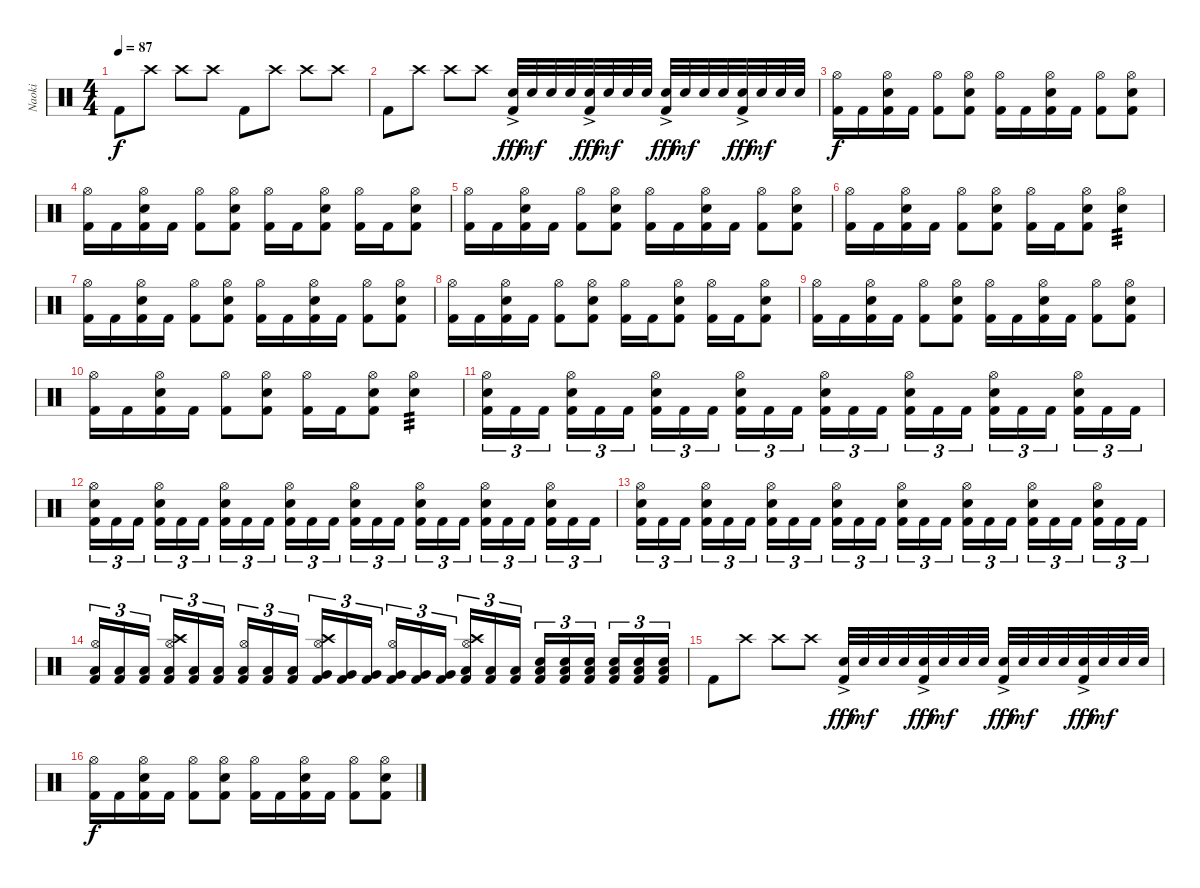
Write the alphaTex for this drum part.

\track ("Naoki" "Naoki") {instrument percussion}
\staff {score}
\articulation defaults
\ts (4 4)
\tempo 87
\clef neutral
\ks c "Kick (hit) 2".8{dy f} "Crash high (hit)".8 "Crash high (hit)".8 "Crash high (hit)".8 "Kick (hit) 2".8 "Crash high (hit)".8 "Crash high (hit)".8 "Crash high (hit)".8
|
"Kick (hit) 2".8 "Crash high (hit)".8 "Crash high (hit)".8 "Crash high (hit)".8 ("Electric Snare (hit)"{ac} "Kick (hit) 2").32{dy fff} "Electric Snare (hit)".32{dy mf} "Electric Snare (hit)".32 "Electric Snare (hit)".32 ("Electric Snare (hit)"{ac} "Kick (hit) 2").32{dy fff} "Electric Snare (hit)".32{dy mf} "Electric Snare (hit)".32 "Electric Snare (hit)".32 ("Electric Snare (hit)"{ac} "Kick (hit) 2").32{dy fff} "Electric Snare (hit)".32{dy mf} "Electric Snare (hit)".32 "Electric Snare (hit)".32 ("Electric Snare (hit)"{ac} "Kick (hit) 2").32{dy fff} "Electric Snare (hit)".32{dy mf} "Electric Snare (hit)".32 "Electric Snare (hit)".32 |
("Hi-Hat (open)" "Kick (hit) 2").16{dy f} "Kick (hit) 2".16 ("Hi-Hat (open)" "Electric Snare (hit)" "Kick (hit) 2").16 "Kick (hit) 2".16 ("Hi-Hat (open)" "Kick (hit) 2").8 ("Hi-Hat (open)" "Electric Snare (hit)" "Kick (hit) 2").8 ("Hi-Hat (open)" "Kick (hit) 2").16 "Kick (hit) 2".16 ("Hi-Hat (open)" "Electric Snare (hit)" "Kick (hit) 2").16 "Kick (hit) 2".16 ("Hi-Hat (open)" "Kick (hit) 2").8 ("Hi-Hat (open)" "Electric Snare (hit)" "Kick (hit) 2").8 |
("Hi-Hat (open)" "Kick (hit) 2").16 "Kick (hit) 2".16 ("Hi-Hat (open)" "Electric Snare (hit)" "Kick (hit) 2").16 "Kick (hit) 2".16 ("Hi-Hat (open)" "Kick (hit) 2").8 ("Hi-Hat (open)" "Electric Snare (hit)" "Kick (hit) 2").8 ("Hi-Hat (open)" "Kick (hit) 2").16 "Kick (hit) 2".16 ("Hi-Hat (open)" "Electric Snare (hit)" "Kick (hit) 2").8 ("Hi-Hat (open)" "Kick (hit) 2").16 "Kick (hit) 2".16 ("Hi-Hat (open)" "Electric Snare (hit)" "Kick (hit) 2").8 |
("Hi-Hat (open)" "Kick (hit) 2").16 "Kick (hit) 2".16 ("Hi-Hat (open)" "Electric Snare (hit)" "Kick (hit) 2").16 "Kick (hit) 2".16 ("Hi-Hat (open)" "Kick (hit) 2").8 ("Hi-Hat (open)" "Electric Snare (hit)" "Kick (hit) 2").8 ("Hi-Hat (open)" "Kick (hit) 2").16 "Kick (hit) 2".16 ("Hi-Hat (open)" "Electric Snare (hit)" "Kick (hit) 2").16 "Kick (hit) 2".16 ("Hi-Hat (open)" "Kick (hit) 2").8 ("Hi-Hat (open)" "Electric Snare (hit)" "Kick (hit) 2").8 |
("Hi-Hat (open)" "Kick (hit) 2").16 "Kick (hit) 2".16 ("Hi-Hat (open)" "Electric Snare (hit)" "Kick (hit) 2").16 "Kick (hit) 2".16 ("Hi-Hat (open)" "Kick (hit) 2").8 ("Hi-Hat (open)" "Electric Snare (hit)" "Kick (hit) 2").8 ("Hi-Hat (open)" "Kick (hit) 2").16 "Kick (hit) 2".16 ("Hi-Hat (open)" "Electric Snare (hit)" "Kick (hit) 2").8 ("Hi-Hat (open)" "Electric Snare (hit)").4{tp 3} |
("Hi-Hat (open)" "Kick (hit) 2").16 "Kick (hit) 2".16 ("Hi-Hat (open)" "Electric Snare (hit)" "Kick (hit) 2").16 "Kick (hit) 2".16 ("Hi-Hat (open)" "Kick (hit) 2").8 ("Hi-Hat (open)" "Electric Snare (hit)" "Kick (hit) 2").8 ("Hi-Hat (open)" "Kick (hit) 2").16 "Kick (hit) 2".16 ("Hi-Hat (open)" "Electric Snare (hit)" "Kick (hit) 2").16 "Kick (hit) 2".16 ("Hi-Hat (open)" "Kick (hit) 2").8 ("Hi-Hat (open)" "Electric Snare (hit)" "Kick (hit) 2").8 |
("Hi-Hat (open)" "Kick (hit) 2").16 "Kick (hit) 2".16 ("Hi-Hat (open)" "Electric Snare (hit)" "Kick (hit) 2").16 "Kick (hit) 2".16 ("Hi-Hat (open)" "Kick (hit) 2").8 ("Hi-Hat (open)" "Electric Snare (hit)" "Kick (hit) 2").8 ("Hi-Hat (open)" "Kick (hit) 2").16 "Kick (hit) 2".16 ("Hi-Hat (open)" "Electric Snare (hit)" "Kick (hit) 2").8 ("Hi-Hat (open)" "Kick (hit) 2").16 "Kick (hit) 2".16 ("Hi-Hat (open)" "Electric Snare (hit)" "Kick (hit) 2").8 |
("Hi-Hat (open)" "Kick (hit) 2").16 "Kick (hit) 2".16 ("Hi-Hat (open)" "Electric Snare (hit)" "Kick (hit) 2").16 "Kick (hit) 2".16 ("Hi-Hat (open)" "Kick (hit) 2").8 ("Hi-Hat (open)" "Electric Snare (hit)" "Kick (hit) 2").8 ("Hi-Hat (open)" "Kick (hit) 2").16 "Kick (hit) 2".16 ("Hi-Hat (open)" "Electric Snare (hit)" "Kick (hit) 2").16 "Kick (hit) 2".16 ("Hi-Hat (open)" "Kick (hit) 2").8 ("Hi-Hat (open)" "Electric Snare (hit)" "Kick (hit) 2").8 |
("Hi-Hat (open)" "Kick (hit) 2").16 "Kick (hit) 2".16 ("Hi-Hat (open)" "Electric Snare (hit)" "Kick (hit) 2").16 "Kick (hit) 2".16 ("Hi-Hat (open)" "Kick (hit) 2").8 ("Hi-Hat (open)" "Electric Snare (hit)" "Kick (hit) 2").8 ("Hi-Hat (open)" "Kick (hit) 2").16 "Kick (hit) 2".16 ("Hi-Hat (open)" "Electric Snare (hit)" "Kick (hit) 2").8 ("Hi-Hat (open)" "Electric Snare (hit)").4{tp 3} |
("Hi-Hat (open)" "Electric Snare (hit)" "Kick (hit) 2").16{tu (3 2)} "Kick (hit) 2".16{tu (3 2)} "Kick (hit) 2".16{tu (3 2) beam splitsecondary} ("Hi-Hat (open)" "Electric Snare (hit)" "Kick (hit) 2").16{tu (3 2)} "Kick (hit) 2".16{tu (3 2)} "Kick (hit) 2".16{tu (3 2)} ("Hi-Hat (open)" "Electric Snare (hit)" "Kick (hit) 2").16{tu (3 2)} "Kick (hit) 2".16{tu (3 2)} "Kick (hit) 2".16{tu (3 2) beam splitsecondary} ("Hi-Hat (open)" "Electric Snare (hit)" "Kick (hit) 2").16{tu (3 2)} "Kick (hit) 2".16{tu (3 2)} "Kick (hit) 2".16{tu (3 2)} ("Hi-Hat (open)" "Electric Snare (hit)" "Kick (hit) 2").16{tu (3 2)} "Kick (hit) 2".16{tu (3 2)} "Kick (hit) 2".16{tu (3 2) beam splitsecondary} ("Hi-Hat (open)" "Electric Snare (hit)" "Kick (hit) 2").16{tu (3 2)} "Kick (hit) 2".16{tu (3 2)} "Kick (hit) 2".16{tu (3 2)} ("Hi-Hat (open)" "Electric Snare (hit)" "Kick (hit) 2").16{tu (3 2)} "Kick (hit) 2".16{tu (3 2)} "Kick (hit) 2".16{tu (3 2) beam splitsecondary} ("Hi-Hat (open)" "Electric Snare (hit)" "Kick (hit) 2").16{tu (3 2)} "Kick (hit) 2".16{tu (3 2)} "Kick (hit) 2".16{tu (3 2)} |
("Hi-Hat (open)" "Electric Snare (hit)" "Kick (hit) 2").16{tu (3 2)} "Kick (hit) 2".16{tu (3 2)} "Kick (hit) 2".16{tu (3 2) beam splitsecondary} ("Hi-Hat (open)" "Electric Snare (hit)" "Kick (hit) 2").16{tu (3 2)} "Kick (hit) 2".16{tu (3 2)} "Kick (hit) 2".16{tu (3 2)} ("Hi-Hat (open)" "Electric Snare (hit)" "Kick (hit) 2").16{tu (3 2)} "Kick (hit) 2".16{tu (3 2)} "Kick (hit) 2".16{tu (3 2) beam splitsecondary} ("Hi-Hat (open)" "Electric Snare (hit)" "Kick (hit) 2").16{tu (3 2)} "Kick (hit) 2".16{tu (3 2)} "Kick (hit) 2".16{tu (3 2)} ("Hi-Hat (open)" "Electric Snare (hit)" "Kick (hit) 2").16{tu (3 2)} "Kick (hit) 2".16{tu (3 2)} "Kick (hit) 2".16{tu (3 2) beam splitsecondary} ("Hi-Hat (open)" "Electric Snare (hit)" "Kick (hit) 2").16{tu (3 2)} "Kick (hit) 2".16{tu (3 2)} "Kick (hit) 2".16{tu (3 2)} ("Hi-Hat (open)" "Electric Snare (hit)" "Kick (hit) 2").16{tu (3 2)} "Kick (hit) 2".16{tu (3 2)} "Kick (hit) 2".16{tu (3 2) beam splitsecondary} ("Hi-Hat (open)" "Electric Snare (hit)" "Kick (hit) 2").16{tu (3 2)} "Kick (hit) 2".16{tu (3 2)} "Kick (hit) 2".16{tu (3 2)} |
("Hi-Hat (open)" "Electric Snare (hit)" "Kick (hit) 2").16{tu (3 2)} "Kick (hit) 2".16{tu (3 2)} "Kick (hit) 2".16{tu (3 2) beam splitsecondary} ("Hi-Hat (open)" "Electric Snare (hit)" "Kick (hit) 2").16{tu (3 2)} "Kick (hit) 2".16{tu (3 2)} "Kick (hit) 2".16{tu (3 2)} ("Hi-Hat (open)" "Electric Snare (hit)" "Kick (hit) 2").16{tu (3 2)} "Kick (hit) 2".16{tu (3 2)} "Kick (hit) 2".16{tu (3 2) beam splitsecondary} ("Hi-Hat (open)" "Electric Snare (hit)" "Kick (hit) 2").16{tu (3 2)} "Kick (hit) 2".16{tu (3 2)} "Kick (hit) 2".16{tu (3 2)} ("Hi-Hat (open)" "Electric Snare (hit)" "Kick (hit) 2").16{tu (3 2)} "Kick (hit) 2".16{tu (3 2)} "Kick (hit) 2".16{tu (3 2) beam splitsecondary} ("Hi-Hat (open)" "Electric Snare (hit)" "Kick (hit) 2").16{tu (3 2)} "Kick (hit) 2".16{tu (3 2)} "Kick (hit) 2".16{tu (3 2)} ("Hi-Hat (open)" "Electric Snare (hit)" "Kick (hit) 2").16{tu (3 2)} "Kick (hit) 2".16{tu (3 2)} "Kick (hit) 2".16{tu (3 2) beam splitsecondary} ("Hi-Hat (open)" "Electric Snare (hit)" "Kick (hit) 2").16{tu (3 2)} "Kick (hit) 2".16{tu (3 2)} "Kick (hit) 2".16{tu (3 2)} |
("Hi-Hat (open)" "Low Tom (hit)" "Kick (hit) 2").16{tu (3 2)} ("Low Tom (hit)" "Kick (hit) 2").16{tu (3 2)} ("Low Tom (hit)" "Kick (hit) 2").16{tu (3 2) beam splitsecondary} ("Crash high (hit)" "Hi-Hat (open)" "Low Tom (hit)" "Kick (hit) 2").16{tu (3 2)} ("Low Tom (hit)" "Kick (hit) 2").16{tu (3 2)} ("Low Tom (hit)" "Kick (hit) 2").16{tu (3 2)} ("Hi-Hat (open)" "Low Tom (hit)" "Kick (hit) 2").16{tu (3 2)} ("Low Tom (hit)" "Kick (hit) 2").16{tu (3 2)} ("Low Tom (hit)" "Kick (hit) 2").16{tu (3 2) beam splitsecondary} ("Crash high (hit)" "Hi-Hat (open)" "Very Low Tom (hit)" "Kick (hit) 2").16{tu (3 2)} ("Very Low Tom (hit)" "Kick (hit) 2").16{tu (3 2)} ("Very Low Tom (hit)" "Kick (hit) 2").16{tu (3 2)} ("Hi-Hat (open)" "Very Low Tom (hit)" "Kick (hit) 2").16{tu (3 2)} ("Very Low Tom (hit)" "Kick (hit) 2").16{tu (3 2)} ("Very Low Tom (hit)" "Kick (hit) 2").16{tu (3 2) beam splitsecondary} ("Crash high (hit)" "Hi-Hat (open)" "Low Floor Tom (hit)" "Kick (hit) 2").16{tu (3 2)} ("Low Floor Tom (hit)" "Kick (hit) 2").16{tu (3 2)} ("Low Floor Tom (hit)" "Kick (hit) 2").16{tu (3 2)} ("Electric Snare (hit)" "Low Floor Tom (hit)" "Kick (hit) 2").16{tu (3 2)} ("Electric Snare (hit)" "Low Floor Tom (hit)" "Kick (hit) 2").16{tu (3 2)} ("Electric Snare (hit)" "Low Floor Tom (hit)" "Kick (hit) 2").16{tu (3 2) beam splitsecondary} ("Electric Snare (hit)" "Low Floor Tom (hit)" "Kick (hit) 2").16{tu (3 2)} ("Electric Snare (hit)" "Low Floor Tom (hit)" "Kick (hit) 2").16{tu (3 2)} ("Electric Snare (hit)" "Low Floor Tom (hit)" "Kick (hit) 2").16{tu (3 2)} |
"Kick (hit) 2".8 "Crash high (hit)".8 "Crash high (hit)".8 "Crash high (hit)".8 ("Electric Snare (hit)"{ac} "Kick (hit) 2").32{dy fff} "Electric Snare (hit)".32{dy mf} "Electric Snare (hit)".32 "Electric Snare (hit)".32 ("Electric Snare (hit)"{ac} "Kick (hit) 2").32{dy fff} "Electric Snare (hit)".32{dy mf} "Electric Snare (hit)".32 "Electric Snare (hit)".32 ("Electric Snare (hit)"{ac} "Kick (hit) 2").32{dy fff} "Electric Snare (hit)".32{dy mf} "Electric Snare (hit)".32 "Electric Snare (hit)".32 ("Electric Snare (hit)"{ac} "Kick (hit) 2").32{dy fff} "Electric Snare (hit)".32{dy mf} "Electric Snare (hit)".32 "Electric Snare (hit)".32 |
("Hi-Hat (open)" "Kick (hit) 2").16{dy f} "Kick (hit) 2".16 ("Hi-Hat (open)" "Electric Snare (hit)" "Kick (hit) 2").16 "Kick (hit) 2".16 ("Hi-Hat (open)" "Kick (hit) 2").8 ("Hi-Hat (open)" "Electric Snare (hit)" "Kick (hit) 2").8 ("Hi-Hat (open)" "Kick (hit) 2").16 "Kick (hit) 2".16 ("Hi-Hat (open)" "Electric Snare (hit)" "Kick (hit) 2").16 "Kick (hit) 2".16 ("Hi-Hat (open)" "Kick (hit) 2").8 ("Hi-Hat (open)" "Electric Snare (hit)" "Kick (hit) 2").8
